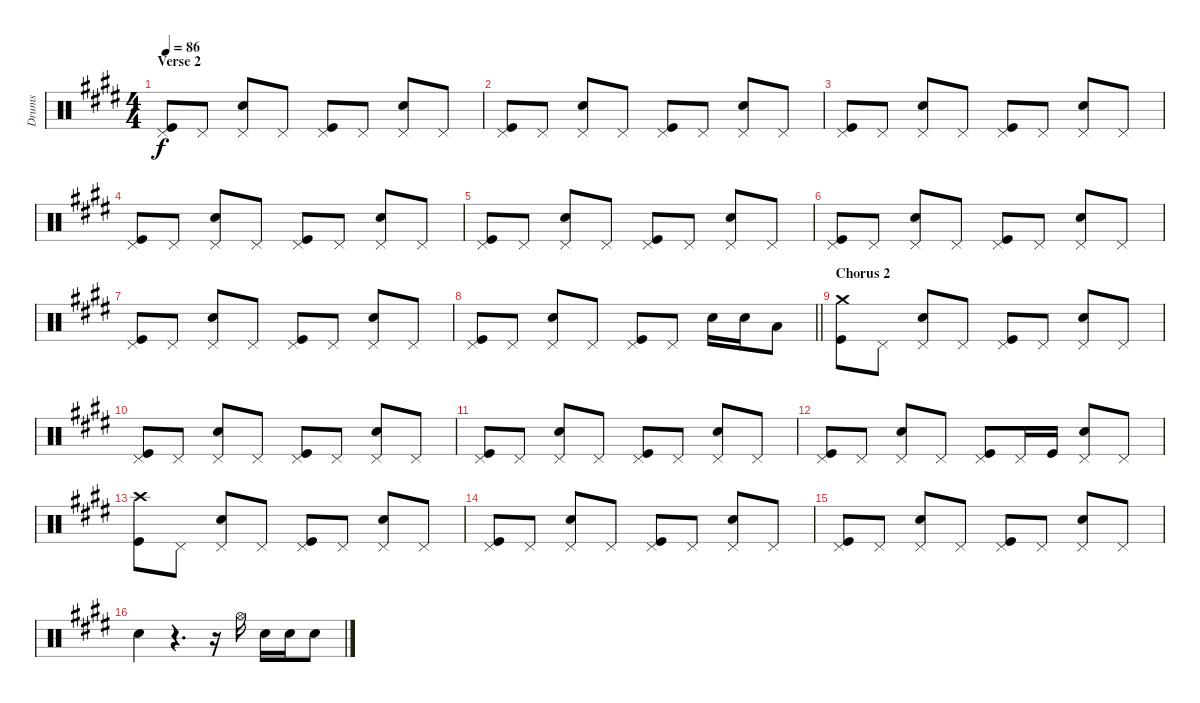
\track ("Drums" "Drums") {instrument percussion}
\staff {score}
\articulation defaults
\ts (4 4)
\section ("" "Verse 2")
\tempo 86
\clef neutral
\ks e
("Pedal Hi-Hat (hit)" "Kick (hit)").8{dy f} "Pedal Hi-Hat (hit)".8 ("Pedal Hi-Hat (hit)" "Snare (hit) 2").8 "Pedal Hi-Hat (hit)".8 ("Pedal Hi-Hat (hit)" "Kick (hit)").8 "Pedal Hi-Hat (hit)".8 ("Pedal Hi-Hat (hit)" "Snare (hit) 2").8 "Pedal Hi-Hat (hit)".8 |
("Pedal Hi-Hat (hit)" "Kick (hit)").8 "Pedal Hi-Hat (hit)".8 ("Pedal Hi-Hat (hit)" "Snare (hit) 2").8 "Pedal Hi-Hat (hit)".8 ("Pedal Hi-Hat (hit)" "Kick (hit)").8 "Pedal Hi-Hat (hit)".8 ("Pedal Hi-Hat (hit)" "Snare (hit) 2").8 "Pedal Hi-Hat (hit)".8 |
("Pedal Hi-Hat (hit)" "Kick (hit)").8 "Pedal Hi-Hat (hit)".8 ("Pedal Hi-Hat (hit)" "Snare (hit) 2").8 "Pedal Hi-Hat (hit)".8 ("Pedal Hi-Hat (hit)" "Kick (hit)").8 "Pedal Hi-Hat (hit)".8 ("Pedal Hi-Hat (hit)" "Snare (hit) 2").8 "Pedal Hi-Hat (hit)".8 |
("Pedal Hi-Hat (hit)" "Kick (hit)").8 "Pedal Hi-Hat (hit)".8 ("Pedal Hi-Hat (hit)" "Snare (hit) 2").8 "Pedal Hi-Hat (hit)".8 ("Pedal Hi-Hat (hit)" "Kick (hit)").8 "Pedal Hi-Hat (hit)".8 ("Pedal Hi-Hat (hit)" "Snare (hit) 2").8 "Pedal Hi-Hat (hit)".8 |
("Pedal Hi-Hat (hit)" "Kick (hit)").8 "Pedal Hi-Hat (hit)".8 ("Pedal Hi-Hat (hit)" "Snare (hit) 2").8 "Pedal Hi-Hat (hit)".8 ("Pedal Hi-Hat (hit)" "Kick (hit)").8 "Pedal Hi-Hat (hit)".8 ("Pedal Hi-Hat (hit)" "Snare (hit) 2").8 "Pedal Hi-Hat (hit)".8 |
("Pedal Hi-Hat (hit)" "Kick (hit)").8 "Pedal Hi-Hat (hit)".8 ("Pedal Hi-Hat (hit)" "Snare (hit) 2").8 "Pedal Hi-Hat (hit)".8 ("Pedal Hi-Hat (hit)" "Kick (hit)").8 "Pedal Hi-Hat (hit)".8 ("Pedal Hi-Hat (hit)" "Snare (hit) 2").8 "Pedal Hi-Hat (hit)".8 |
("Pedal Hi-Hat (hit)" "Kick (hit)").8 "Pedal Hi-Hat (hit)".8 ("Pedal Hi-Hat (hit)" "Snare (hit) 2").8 "Pedal Hi-Hat (hit)".8 ("Pedal Hi-Hat (hit)" "Kick (hit)").8 "Pedal Hi-Hat (hit)".8 ("Pedal Hi-Hat (hit)" "Snare (hit) 2").8 "Pedal Hi-Hat (hit)".8 |
\barLineRight lightlight
("Pedal Hi-Hat (hit)" "Kick (hit)").8 "Pedal Hi-Hat (hit)".8 ("Pedal Hi-Hat (hit)" "Snare (hit) 2").8 "Pedal Hi-Hat (hit)".8 ("Pedal Hi-Hat (hit)" "Kick (hit)").8 "Pedal Hi-Hat (hit)".8 "Snare (hit) 2".16 "Snare (hit) 2".16 "Low Tom (hit)".8 |
\section ("" "Chorus 2")
("Crash medium (hit)" "Kick (hit)").8 "Pedal Hi-Hat (hit)".8 ("Pedal Hi-Hat (hit)" "Snare (hit) 2").8 "Pedal Hi-Hat (hit)".8 ("Pedal Hi-Hat (hit)" "Kick (hit)").8 "Pedal Hi-Hat (hit)".8 ("Pedal Hi-Hat (hit)" "Snare (hit) 2").8 "Pedal Hi-Hat (hit)".8 |
("Pedal Hi-Hat (hit)" "Kick (hit)").8 "Pedal Hi-Hat (hit)".8 ("Pedal Hi-Hat (hit)" "Snare (hit) 2").8 "Pedal Hi-Hat (hit)".8 ("Pedal Hi-Hat (hit)" "Kick (hit)").8 "Pedal Hi-Hat (hit)".8 ("Pedal Hi-Hat (hit)" "Snare (hit) 2").8 "Pedal Hi-Hat (hit)".8 |
("Pedal Hi-Hat (hit)" "Kick (hit)").8 "Pedal Hi-Hat (hit)".8 ("Pedal Hi-Hat (hit)" "Snare (hit) 2").8 "Pedal Hi-Hat (hit)".8 ("Pedal Hi-Hat (hit)" "Kick (hit)").8 "Pedal Hi-Hat (hit)".8 ("Pedal Hi-Hat (hit)" "Snare (hit) 2").8 "Pedal Hi-Hat (hit)".8 |
("Pedal Hi-Hat (hit)" "Kick (hit)").8 "Pedal Hi-Hat (hit)".8 ("Pedal Hi-Hat (hit)" "Snare (hit) 2").8 "Pedal Hi-Hat (hit)".8 ("Pedal Hi-Hat (hit)" "Kick (hit)").8 "Pedal Hi-Hat (hit)".16 "Kick (hit)".16 ("Pedal Hi-Hat (hit)" "Snare (hit) 2").8 "Pedal Hi-Hat (hit)".8 |
("Crash high (hit)" "Kick (hit)").8 "Pedal Hi-Hat (hit)".8 ("Pedal Hi-Hat (hit)" "Snare (hit) 2").8 "Pedal Hi-Hat (hit)".8 ("Pedal Hi-Hat (hit)" "Kick (hit)").8 "Pedal Hi-Hat (hit)".8 ("Pedal Hi-Hat (hit)" "Snare (hit) 2").8 "Pedal Hi-Hat (hit)".8 |
("Pedal Hi-Hat (hit)" "Kick (hit)").8 "Pedal Hi-Hat (hit)".8 ("Pedal Hi-Hat (hit)" "Snare (hit) 2").8 "Pedal Hi-Hat (hit)".8 ("Pedal Hi-Hat (hit)" "Kick (hit)").8 "Pedal Hi-Hat (hit)".8 ("Pedal Hi-Hat (hit)" "Snare (hit) 2").8 "Pedal Hi-Hat (hit)".8 |
("Pedal Hi-Hat (hit)" "Kick (hit)").8 "Pedal Hi-Hat (hit)".8 ("Pedal Hi-Hat (hit)" "Snare (hit) 2").8 "Pedal Hi-Hat (hit)".8 ("Pedal Hi-Hat (hit)" "Kick (hit)").8 "Pedal Hi-Hat (hit)".8 ("Pedal Hi-Hat (hit)" "Snare (hit) 2").8 "Pedal Hi-Hat (hit)".8 |
"Snare (hit) 2".4 r.4{d} r.16 "Hi-Hat (open)".16 "Snare (hit) 2".16 "Snare (hit) 2".16 "Snare (hit) 2".8
